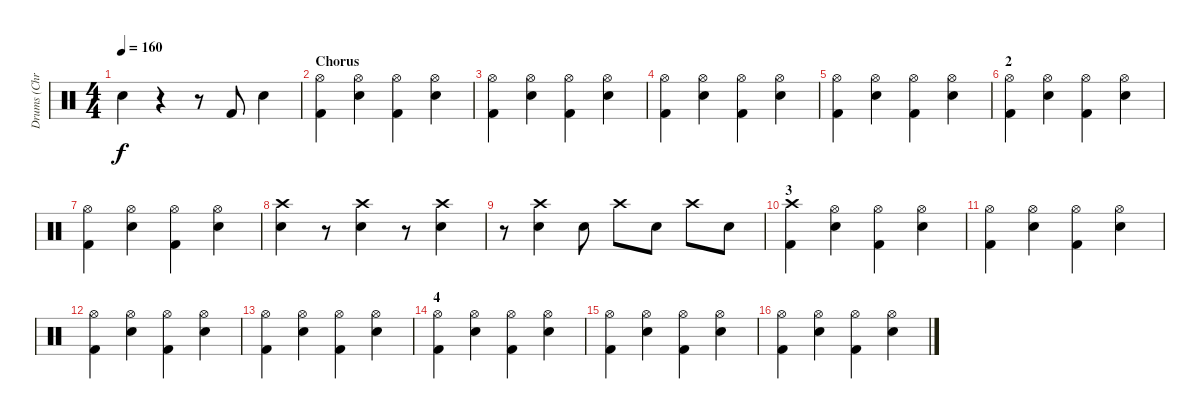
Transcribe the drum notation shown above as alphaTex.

\track ("Drums (Chris Efthimiadis)" "Drums (Chr") {instrument percussion}
\staff {score}
\articulation defaults
\ts (4 4)
\tempo 160
\clef neutral
\ks c "Snare (hit) 2".4{dy f}
r.4 r.8 "Kick (hit) 2".8 "Snare (hit) 2".4 |
\section ("" "Chorus")
("Hi-Hat (open)" "Kick (hit) 2").4 ("Hi-Hat (open)" "Snare (hit) 2").4 ("Hi-Hat (open)" "Kick (hit) 2").4 ("Hi-Hat (open)" "Snare (hit) 2").4 |
("Hi-Hat (open)" "Kick (hit) 2").4 ("Hi-Hat (open)" "Snare (hit) 2").4 ("Hi-Hat (open)" "Kick (hit) 2").4 ("Hi-Hat (open)" "Snare (hit) 2").4 |
("Hi-Hat (open)" "Kick (hit) 2").4 ("Hi-Hat (open)" "Snare (hit) 2").4 ("Hi-Hat (open)" "Kick (hit) 2").4 ("Hi-Hat (open)" "Snare (hit) 2").4 |
("Hi-Hat (open)" "Kick (hit) 2").4 ("Hi-Hat (open)" "Snare (hit) 2").4 ("Hi-Hat (open)" "Kick (hit) 2").4 ("Hi-Hat (open)" "Snare (hit) 2").4 |
\section ("" "2")
("Hi-Hat (open)" "Kick (hit) 2").4 ("Hi-Hat (open)" "Snare (hit) 2").4 ("Hi-Hat (open)" "Kick (hit) 2").4 ("Hi-Hat (open)" "Snare (hit) 2").4 |
("Hi-Hat (open)" "Kick (hit) 2").4 ("Hi-Hat (open)" "Snare (hit) 2").4 ("Hi-Hat (open)" "Kick (hit) 2").4 ("Hi-Hat (open)" "Snare (hit) 2").4 |
("Crash high (hit)" "Snare (hit) 2").4 r.8 ("Crash high (hit)" "Snare (hit) 2").4 r.8 ("Crash high (hit)" "Snare (hit) 2").4 |
r.8 ("Crash high (hit)" "Snare (hit) 2").4 "Snare (hit) 2".8 "Crash high (hit)".8 "Snare (hit) 2".8 "Crash high (hit)".8 "Snare (hit) 2".8 |
\section ("" "3")
("Crash high (hit)" "Kick (hit) 2").4 ("Hi-Hat (open)" "Snare (hit) 2").4 ("Hi-Hat (open)" "Kick (hit) 2").4 ("Hi-Hat (open)" "Snare (hit) 2").4 |
("Hi-Hat (open)" "Kick (hit) 2").4 ("Hi-Hat (open)" "Snare (hit) 2").4 ("Hi-Hat (open)" "Kick (hit) 2").4 ("Hi-Hat (open)" "Snare (hit) 2").4 |
("Hi-Hat (open)" "Kick (hit) 2").4 ("Hi-Hat (open)" "Snare (hit) 2").4 ("Hi-Hat (open)" "Kick (hit) 2").4 ("Hi-Hat (open)" "Snare (hit) 2").4 |
("Hi-Hat (open)" "Kick (hit) 2").4 ("Hi-Hat (open)" "Snare (hit) 2").4 ("Hi-Hat (open)" "Kick (hit) 2").4 ("Hi-Hat (open)" "Snare (hit) 2").4 |
\section ("" "4")
("Hi-Hat (open)" "Kick (hit) 2").4 ("Hi-Hat (open)" "Snare (hit) 2").4 ("Hi-Hat (open)" "Kick (hit) 2").4 ("Hi-Hat (open)" "Snare (hit) 2").4 |
("Hi-Hat (open)" "Kick (hit) 2").4 ("Hi-Hat (open)" "Snare (hit) 2").4 ("Hi-Hat (open)" "Kick (hit) 2").4 ("Hi-Hat (open)" "Snare (hit) 2").4 |
("Hi-Hat (open)" "Kick (hit) 2").4 ("Hi-Hat (open)" "Snare (hit) 2").4 ("Hi-Hat (open)" "Kick (hit) 2").4 ("Hi-Hat (open)" "Snare (hit) 2").4
